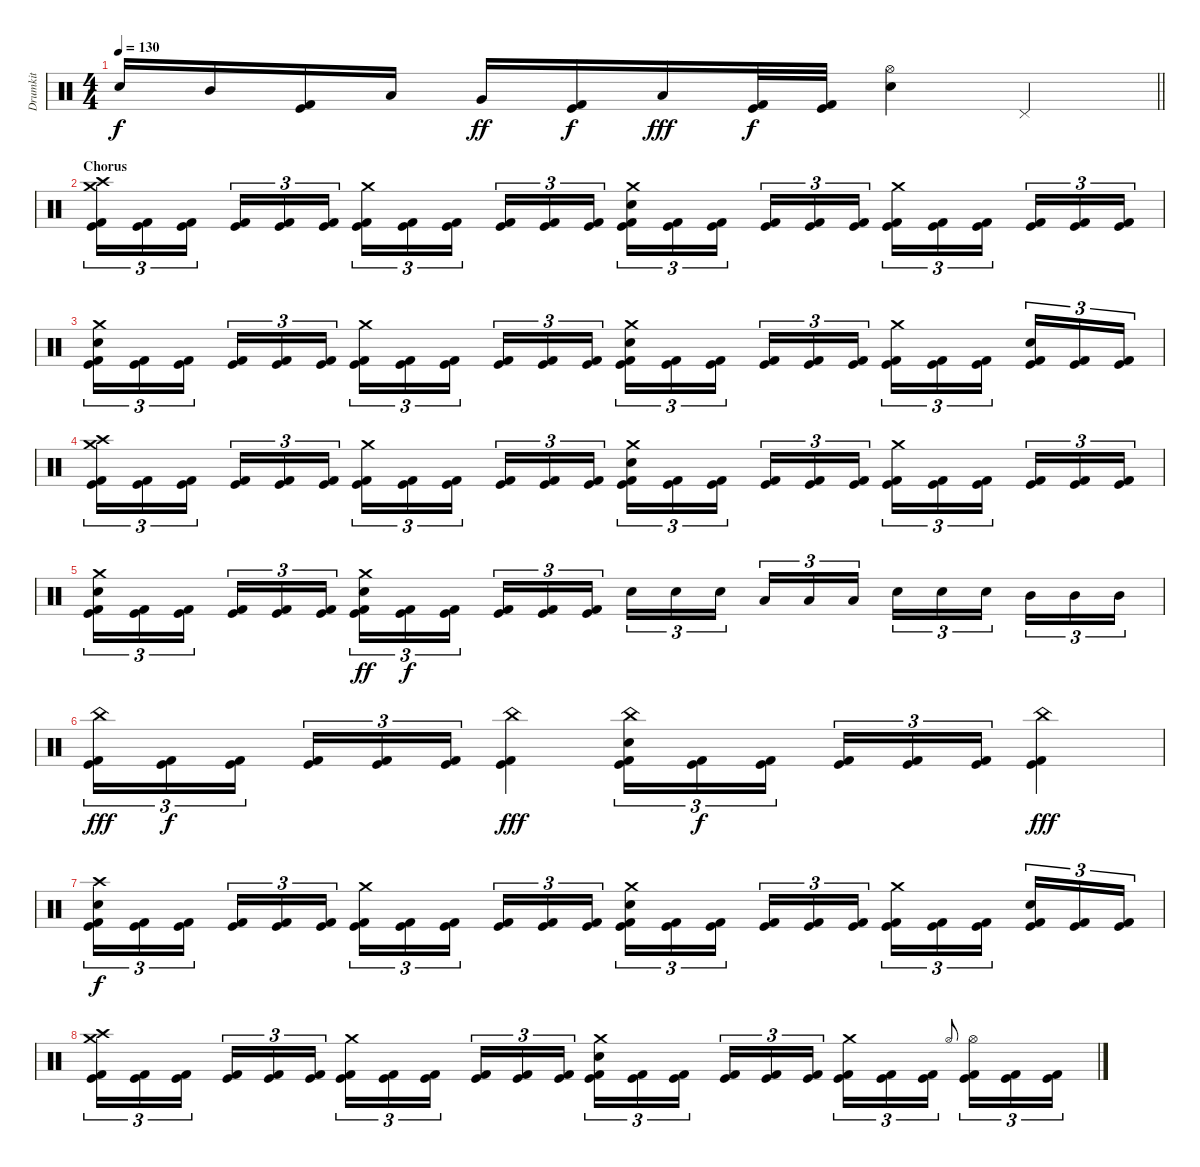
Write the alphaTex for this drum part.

\track ("Drumkit" "Drumkit") {instrument percussion}
\staff {score}
\articulation defaults
\ts (4 4)
\tempo 130
\clef neutral
\barLineRight lightlight
\ks c "Electric Snare (hit)".16{dy f} "Mid Tom (hit)".16
("Kick (hit)" "Kick (hit) 2").16 "Low Tom (hit)".16 "Very Low Tom (hit)".16{dy ff} ("Kick (hit)" "Kick (hit) 2").16{dy f} "Low Floor Tom (hit)".16{dy fff} ("Kick (hit)" "Kick (hit) 2").32{dy f} ("Kick (hit)" "Kick (hit) 2").32 ("Hi-Hat (open)" "Electric Snare (hit)").4 "Pedal Hi-Hat (hit)".4 |
\section ("" "Chorus")
("Crash high (hit)" "Crash medium (hit)" "Kick (hit)" "Kick (hit) 2").16{tu (3 2)} ("Kick (hit)" "Kick (hit) 2").16{tu (3 2)} ("Kick (hit)" "Kick (hit) 2").16{tu (3 2) beam splitsecondary} ("Kick (hit)" "Kick (hit) 2").16{tu (3 2)} ("Kick (hit)" "Kick (hit) 2").16{tu (3 2)} ("Kick (hit)" "Kick (hit) 2").16{tu (3 2)} ("Crash medium (hit)" "Kick (hit)" "Kick (hit) 2").16{tu (3 2)} ("Kick (hit)" "Kick (hit) 2").16{tu (3 2)} ("Kick (hit)" "Kick (hit) 2").16{tu (3 2) beam splitsecondary} ("Kick (hit)" "Kick (hit) 2").16{tu (3 2)} ("Kick (hit)" "Kick (hit) 2").16{tu (3 2)} ("Kick (hit)" "Kick (hit) 2").16{tu (3 2)} ("Crash medium (hit)" "Electric Snare (hit)" "Kick (hit)" "Kick (hit) 2").16{tu (3 2)} ("Kick (hit)" "Kick (hit) 2").16{tu (3 2)} ("Kick (hit)" "Kick (hit) 2").16{tu (3 2) beam splitsecondary} ("Kick (hit)" "Kick (hit) 2").16{tu (3 2)} ("Kick (hit)" "Kick (hit) 2").16{tu (3 2)} ("Kick (hit)" "Kick (hit) 2").16{tu (3 2)} ("Crash medium (hit)" "Kick (hit)" "Kick (hit) 2").16{tu (3 2)} ("Kick (hit)" "Kick (hit) 2").16{tu (3 2)} ("Kick (hit)" "Kick (hit) 2").16{tu (3 2) beam splitsecondary} ("Kick (hit)" "Kick (hit) 2").16{tu (3 2)} ("Kick (hit)" "Kick (hit) 2").16{tu (3 2)} ("Kick (hit)" "Kick (hit) 2").16{tu (3 2)} |
("Crash medium (hit)" "Electric Snare (hit)" "Kick (hit)" "Kick (hit) 2").16{tu (3 2)} ("Kick (hit)" "Kick (hit) 2").16{tu (3 2)} ("Kick (hit)" "Kick (hit) 2").16{tu (3 2) beam splitsecondary} ("Kick (hit)" "Kick (hit) 2").16{tu (3 2)} ("Kick (hit)" "Kick (hit) 2").16{tu (3 2)} ("Kick (hit)" "Kick (hit) 2").16{tu (3 2)} ("Crash medium (hit)" "Kick (hit)" "Kick (hit) 2").16{tu (3 2)} ("Kick (hit)" "Kick (hit) 2").16{tu (3 2)} ("Kick (hit)" "Kick (hit) 2").16{tu (3 2) beam splitsecondary} ("Kick (hit)" "Kick (hit) 2").16{tu (3 2)} ("Kick (hit)" "Kick (hit) 2").16{tu (3 2)} ("Kick (hit)" "Kick (hit) 2").16{tu (3 2)} ("Crash medium (hit)" "Electric Snare (hit)" "Kick (hit)" "Kick (hit) 2").16{tu (3 2)} ("Kick (hit)" "Kick (hit) 2").16{tu (3 2)} ("Kick (hit)" "Kick (hit) 2").16{tu (3 2) beam splitsecondary} ("Kick (hit)" "Kick (hit) 2").16{tu (3 2)} ("Kick (hit)" "Kick (hit) 2").16{tu (3 2)} ("Kick (hit)" "Kick (hit) 2").16{tu (3 2)} ("Crash medium (hit)" "Kick (hit)" "Kick (hit) 2").16{tu (3 2)} ("Kick (hit)" "Kick (hit) 2").16{tu (3 2)} ("Kick (hit)" "Kick (hit) 2").16{tu (3 2) beam splitsecondary} ("Electric Snare (hit)" "Kick (hit)" "Kick (hit) 2").16{tu (3 2)} ("Kick (hit)" "Kick (hit) 2").16{tu (3 2)} ("Kick (hit)" "Kick (hit) 2").16{tu (3 2)} |
("Crash high (hit)" "Crash medium (hit)" "Kick (hit)" "Kick (hit) 2").16{tu (3 2)} ("Kick (hit)" "Kick (hit) 2").16{tu (3 2)} ("Kick (hit)" "Kick (hit) 2").16{tu (3 2) beam splitsecondary} ("Kick (hit)" "Kick (hit) 2").16{tu (3 2)} ("Kick (hit)" "Kick (hit) 2").16{tu (3 2)} ("Kick (hit)" "Kick (hit) 2").16{tu (3 2)} ("Crash medium (hit)" "Kick (hit)" "Kick (hit) 2").16{tu (3 2)} ("Kick (hit)" "Kick (hit) 2").16{tu (3 2)} ("Kick (hit)" "Kick (hit) 2").16{tu (3 2) beam splitsecondary} ("Kick (hit)" "Kick (hit) 2").16{tu (3 2)} ("Kick (hit)" "Kick (hit) 2").16{tu (3 2)} ("Kick (hit)" "Kick (hit) 2").16{tu (3 2)} ("Crash medium (hit)" "Electric Snare (hit)" "Kick (hit)" "Kick (hit) 2").16{tu (3 2)} ("Kick (hit)" "Kick (hit) 2").16{tu (3 2)} ("Kick (hit)" "Kick (hit) 2").16{tu (3 2) beam splitsecondary} ("Kick (hit)" "Kick (hit) 2").16{tu (3 2)} ("Kick (hit)" "Kick (hit) 2").16{tu (3 2)} ("Kick (hit)" "Kick (hit) 2").16{tu (3 2)} ("Crash medium (hit)" "Kick (hit)" "Kick (hit) 2").16{tu (3 2)} ("Kick (hit)" "Kick (hit) 2").16{tu (3 2)} ("Kick (hit)" "Kick (hit) 2").16{tu (3 2) beam splitsecondary} ("Kick (hit)" "Kick (hit) 2").16{tu (3 2)} ("Kick (hit)" "Kick (hit) 2").16{tu (3 2)} ("Kick (hit)" "Kick (hit) 2").16{tu (3 2)} |
("Crash medium (hit)" "Electric Snare (hit)" "Kick (hit)" "Kick (hit) 2").16{tu (3 2)} ("Kick (hit)" "Kick (hit) 2").16{tu (3 2)} ("Kick (hit)" "Kick (hit) 2").16{tu (3 2) beam splitsecondary} ("Kick (hit)" "Kick (hit) 2").16{tu (3 2)} ("Kick (hit)" "Kick (hit) 2").16{tu (3 2)} ("Kick (hit)" "Kick (hit) 2").16{tu (3 2)} ("Crash medium (hit)" "Electric Snare (hit)" "Kick (hit)" "Kick (hit) 2").16{tu (3 2) dy ff} ("Kick (hit)" "Kick (hit) 2").16{tu (3 2) dy f} ("Kick (hit)" "Kick (hit) 2").16{tu (3 2) beam splitsecondary} ("Kick (hit)" "Kick (hit) 2").16{tu (3 2)} ("Kick (hit)" "Kick (hit) 2").16{tu (3 2)} ("Kick (hit)" "Kick (hit) 2").16{tu (3 2)} "Electric Snare (hit)".16{tu (3 2)} "Electric Snare (hit)".16{tu (3 2)} "Electric Snare (hit)".16{tu (3 2) beam splitsecondary} "Low Tom (hit)".16{tu (3 2)} "Low Tom (hit)".16{tu (3 2)} "Low Tom (hit)".16{tu (3 2)} "Electric Snare (hit)".16{tu (3 2)} "Electric Snare (hit)".16{tu (3 2)} "Electric Snare (hit)".16{tu (3 2) beam splitsecondary} "Mid Tom (hit)".16{tu (3 2)} "Mid Tom (hit)".16{tu (3 2)} "Mid Tom (hit)".16{tu (3 2)} |
("China (hit)" "Kick (hit)" "Kick (hit) 2").16{tu (3 2) dy fff} ("Kick (hit)" "Kick (hit) 2").16{tu (3 2) dy f} ("Kick (hit)" "Kick (hit) 2").16{tu (3 2) beam splitsecondary} ("Kick (hit)" "Kick (hit) 2").16{tu (3 2)} ("Kick (hit)" "Kick (hit) 2").16{tu (3 2)} ("Kick (hit)" "Kick (hit) 2").16{tu (3 2)} ("China (hit)" "Kick (hit)" "Kick (hit) 2").4{dy fff} ("China (hit)" "Electric Snare (hit)" "Kick (hit)" "Kick (hit) 2").16{tu (3 2)} ("Kick (hit)" "Kick (hit) 2").16{tu (3 2) dy f} ("Kick (hit)" "Kick (hit) 2").16{tu (3 2) beam splitsecondary} ("Kick (hit)" "Kick (hit) 2").16{tu (3 2)} ("Kick (hit)" "Kick (hit) 2").16{tu (3 2)} ("Kick (hit)" "Kick (hit) 2").16{tu (3 2)} ("China (hit)" "Kick (hit)" "Kick (hit) 2").4{dy fff} |
("Crash high (hit)" "Electric Snare (hit)" "Kick (hit)" "Kick (hit) 2").16{tu (3 2) dy f} ("Kick (hit)" "Kick (hit) 2").16{tu (3 2)} ("Kick (hit)" "Kick (hit) 2").16{tu (3 2) beam splitsecondary} ("Kick (hit)" "Kick (hit) 2").16{tu (3 2)} ("Kick (hit)" "Kick (hit) 2").16{tu (3 2)} ("Kick (hit)" "Kick (hit) 2").16{tu (3 2)} ("Crash medium (hit)" "Kick (hit)" "Kick (hit) 2").16{tu (3 2)} ("Kick (hit)" "Kick (hit) 2").16{tu (3 2)} ("Kick (hit)" "Kick (hit) 2").16{tu (3 2) beam splitsecondary} ("Kick (hit)" "Kick (hit) 2").16{tu (3 2)} ("Kick (hit)" "Kick (hit) 2").16{tu (3 2)} ("Kick (hit)" "Kick (hit) 2").16{tu (3 2)} ("Crash medium (hit)" "Electric Snare (hit)" "Kick (hit)" "Kick (hit) 2").16{tu (3 2)} ("Kick (hit)" "Kick (hit) 2").16{tu (3 2)} ("Kick (hit)" "Kick (hit) 2").16{tu (3 2) beam splitsecondary} ("Kick (hit)" "Kick (hit) 2").16{tu (3 2)} ("Kick (hit)" "Kick (hit) 2").16{tu (3 2)} ("Kick (hit)" "Kick (hit) 2").16{tu (3 2)} ("Crash medium (hit)" "Kick (hit)" "Kick (hit) 2").16{tu (3 2)} ("Kick (hit)" "Kick (hit) 2").16{tu (3 2)} ("Kick (hit)" "Kick (hit) 2").16{tu (3 2) beam splitsecondary} ("Electric Snare (hit)" "Kick (hit)" "Kick (hit) 2").16{tu (3 2)} ("Kick (hit)" "Kick (hit) 2").16{tu (3 2)} ("Kick (hit)" "Kick (hit) 2").16{tu (3 2)} |
("Crash high (hit)" "Crash medium (hit)" "Kick (hit)" "Kick (hit) 2").16{tu (3 2)} ("Kick (hit)" "Kick (hit) 2").16{tu (3 2)} ("Kick (hit)" "Kick (hit) 2").16{tu (3 2) beam splitsecondary} ("Kick (hit)" "Kick (hit) 2").16{tu (3 2)} ("Kick (hit)" "Kick (hit) 2").16{tu (3 2)} ("Kick (hit)" "Kick (hit) 2").16{tu (3 2)} ("Crash medium (hit)" "Kick (hit)" "Kick (hit) 2").16{tu (3 2)} ("Kick (hit)" "Kick (hit) 2").16{tu (3 2)} ("Kick (hit)" "Kick (hit) 2").16{tu (3 2) beam splitsecondary} ("Kick (hit)" "Kick (hit) 2").16{tu (3 2)} ("Kick (hit)" "Kick (hit) 2").16{tu (3 2)} ("Kick (hit)" "Kick (hit) 2").16{tu (3 2)} ("Crash medium (hit)" "Electric Snare (hit)" "Kick (hit)" "Kick (hit) 2").16{tu (3 2)} ("Kick (hit)" "Kick (hit) 2").16{tu (3 2)} ("Kick (hit)" "Kick (hit) 2").16{tu (3 2) beam splitsecondary} ("Kick (hit)" "Kick (hit) 2").16{tu (3 2)} ("Kick (hit)" "Kick (hit) 2").16{tu (3 2)} ("Kick (hit)" "Kick (hit) 2").16{tu (3 2)} ("Crash medium (hit)" "Kick (hit)" "Kick (hit) 2").16{tu (3 2)} ("Kick (hit)" "Kick (hit) 2").16{tu (3 2)} ("Kick (hit)" "Kick (hit) 2").16{tu (3 2)} "Hi-Hat (open)".8{gr onbeat beam splitsecondary} ("Hi-Hat (open)" "Kick (hit)" "Kick (hit) 2").16{tu (3 2)} ("Kick (hit)" "Kick (hit) 2").16{tu (3 2)} ("Kick (hit)" "Kick (hit) 2").16{tu (3 2)}
